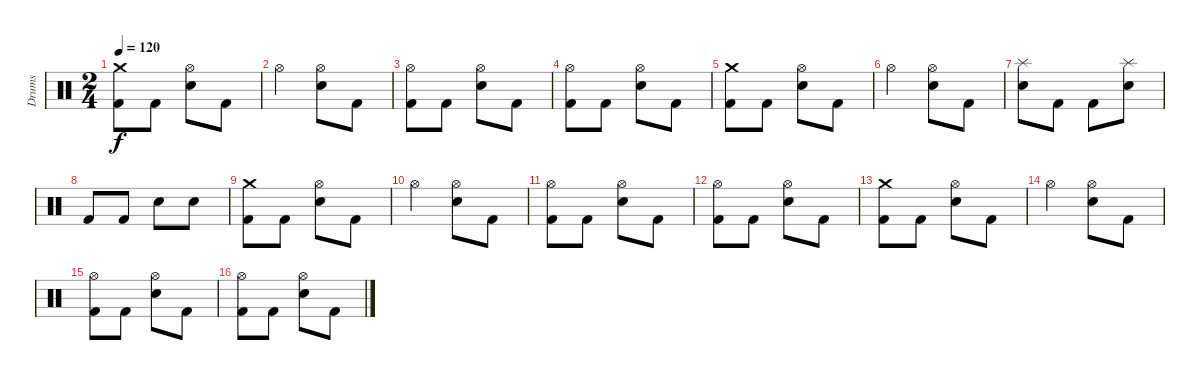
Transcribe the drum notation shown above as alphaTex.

\track ("Drums" "Drums") {instrument percussion}
\staff {score}
\articulation defaults
\ts (2 4)
\tempo 120
\clef neutral
\ks c
("Crash medium (hit)" "Kick (hit) 2").8{dy f} "Kick (hit) 2".8 ("Electric Snare (hit)" "Hi-Hat (open)").8 "Kick (hit) 2".8 |
"Hi-Hat (open)".4 ("Electric Snare (hit)" "Hi-Hat (open)").8 "Kick (hit) 2".8 |
("Hi-Hat (open)" "Kick (hit) 2").8 "Kick (hit) 2".8 ("Electric Snare (hit)" "Hi-Hat (open)").8 "Kick (hit) 2".8 |
("Hi-Hat (open)" "Kick (hit) 2").8 "Kick (hit) 2".8 ("Electric Snare (hit)" "Hi-Hat (open)").8 "Kick (hit) 2".8 |
("Crash medium (hit)" "Kick (hit) 2").8 "Kick (hit) 2".8 ("Electric Snare (hit)" "Hi-Hat (open)").8 "Kick (hit) 2".8 |
"Hi-Hat (open)".4 ("Electric Snare (hit)" "Hi-Hat (open)").8 "Kick (hit) 2".8 |
("Electric Snare (hit)" "Splash (hit)").8 "Kick (hit) 2".8 "Kick (hit) 2".8 ("Electric Snare (hit)" "Splash (hit)").8 |
"Kick (hit) 2".8 "Kick (hit) 2".8 "Electric Snare (hit)".8 "Electric Snare (hit)".8 |
("Crash medium (hit)" "Kick (hit) 2").8 "Kick (hit) 2".8 ("Electric Snare (hit)" "Hi-Hat (open)").8 "Kick (hit) 2".8 |
"Hi-Hat (open)".4 ("Electric Snare (hit)" "Hi-Hat (open)").8 "Kick (hit) 2".8 |
("Hi-Hat (open)" "Kick (hit) 2").8 "Kick (hit) 2".8 ("Electric Snare (hit)" "Hi-Hat (open)").8 "Kick (hit) 2".8 |
("Hi-Hat (open)" "Kick (hit) 2").8 "Kick (hit) 2".8 ("Electric Snare (hit)" "Hi-Hat (open)").8 "Kick (hit) 2".8 |
("Crash medium (hit)" "Kick (hit) 2").8 "Kick (hit) 2".8 ("Electric Snare (hit)" "Hi-Hat (open)").8 "Kick (hit) 2".8 |
"Hi-Hat (open)".4 ("Electric Snare (hit)" "Hi-Hat (open)").8 "Kick (hit) 2".8 |
("Hi-Hat (open)" "Kick (hit) 2").8 "Kick (hit) 2".8 ("Electric Snare (hit)" "Hi-Hat (open)").8 "Kick (hit) 2".8 |
("Hi-Hat (open)" "Kick (hit) 2").8 "Kick (hit) 2".8 ("Electric Snare (hit)" "Hi-Hat (open)").8 "Kick (hit) 2".8
